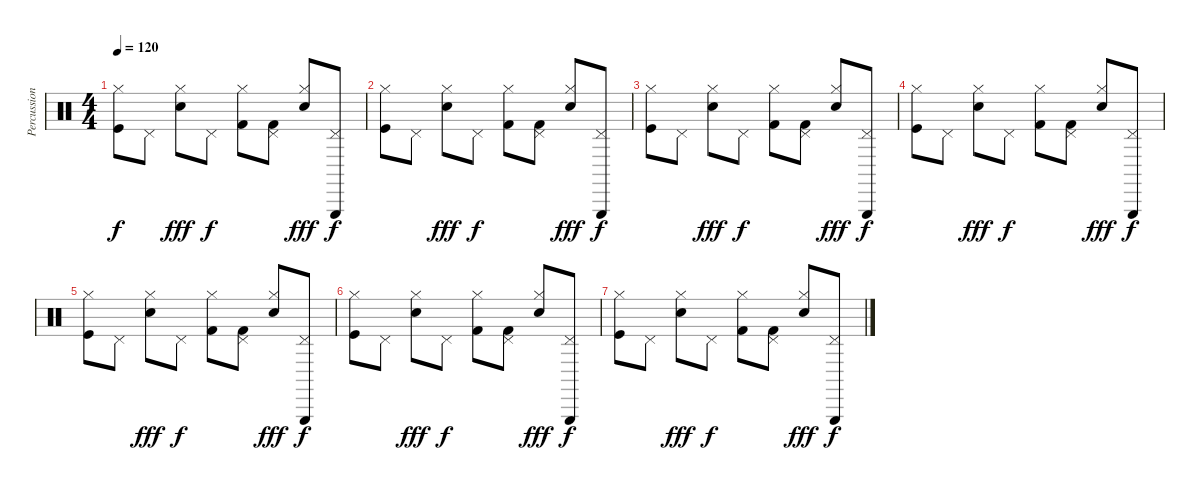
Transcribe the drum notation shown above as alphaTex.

\track ("Percussions" "Percussion") {instrument percussion}
\staff {score}
\articulation defaults
\ts (4 4)
\tempo 120
\clef neutral
\ks c
("Hi-Hat (closed)" "Kick (hit)").8{dy f} "Pedal Hi-Hat (hit)".8 ("Electric Snare (hit)" "Hi-Hat (closed)").8{dy fff} "Pedal Hi-Hat (hit)".8{dy f} ("Kick (hit) 2" "Hi-Hat (closed)").8 ("Kick (hit) 2" "Pedal Hi-Hat (hit)").8 ("Electric Snare (hit)" "Hi-Hat (closed)").8{dy fff} ("Triangle (hit)" "Pedal Hi-Hat (hit)").8{dy f} |
("Hi-Hat (closed)" "Kick (hit)").8 "Pedal Hi-Hat (hit)".8 ("Electric Snare (hit)" "Hi-Hat (closed)").8{dy fff} "Pedal Hi-Hat (hit)".8{dy f} ("Kick (hit) 2" "Hi-Hat (closed)").8 ("Kick (hit) 2" "Pedal Hi-Hat (hit)").8 ("Electric Snare (hit)" "Hi-Hat (closed)").8{dy fff} ("Triangle (hit)" "Pedal Hi-Hat (hit)").8{dy f} |
("Hi-Hat (closed)" "Kick (hit)").8 "Pedal Hi-Hat (hit)".8 ("Electric Snare (hit)" "Hi-Hat (closed)").8{dy fff} "Pedal Hi-Hat (hit)".8{dy f} ("Kick (hit) 2" "Hi-Hat (closed)").8 ("Kick (hit) 2" "Pedal Hi-Hat (hit)").8 ("Electric Snare (hit)" "Hi-Hat (closed)").8{dy fff} ("Triangle (hit)" "Pedal Hi-Hat (hit)").8{dy f} |
("Hi-Hat (closed)" "Kick (hit)").8 "Pedal Hi-Hat (hit)".8 ("Electric Snare (hit)" "Hi-Hat (closed)").8{dy fff} "Pedal Hi-Hat (hit)".8{dy f} ("Kick (hit) 2" "Hi-Hat (closed)").8 ("Kick (hit) 2" "Pedal Hi-Hat (hit)").8 ("Electric Snare (hit)" "Hi-Hat (closed)").8{dy fff} ("Triangle (hit)" "Pedal Hi-Hat (hit)").8{dy f} |
("Hi-Hat (closed)" "Kick (hit)").8 "Pedal Hi-Hat (hit)".8 ("Electric Snare (hit)" "Hi-Hat (closed)").8{dy fff} "Pedal Hi-Hat (hit)".8{dy f} ("Kick (hit) 2" "Hi-Hat (closed)").8 ("Kick (hit) 2" "Pedal Hi-Hat (hit)").8 ("Electric Snare (hit)" "Hi-Hat (closed)").8{dy fff} ("Triangle (hit)" "Pedal Hi-Hat (hit)").8{dy f} |
("Hi-Hat (closed)" "Kick (hit)").8 "Pedal Hi-Hat (hit)".8 ("Electric Snare (hit)" "Hi-Hat (closed)").8{dy fff} "Pedal Hi-Hat (hit)".8{dy f} ("Kick (hit) 2" "Hi-Hat (closed)").8 ("Kick (hit) 2" "Pedal Hi-Hat (hit)").8 ("Electric Snare (hit)" "Hi-Hat (closed)").8{dy fff} ("Triangle (hit)" "Pedal Hi-Hat (hit)").8{dy f} |
("Hi-Hat (closed)" "Kick (hit)").8 "Pedal Hi-Hat (hit)".8 ("Electric Snare (hit)" "Hi-Hat (closed)").8{dy fff} "Pedal Hi-Hat (hit)".8{dy f} ("Kick (hit) 2" "Hi-Hat (closed)").8 ("Kick (hit) 2" "Pedal Hi-Hat (hit)").8 ("Electric Snare (hit)" "Hi-Hat (closed)").8{dy fff} ("Triangle (hit)" "Pedal Hi-Hat (hit)").8{dy f}
